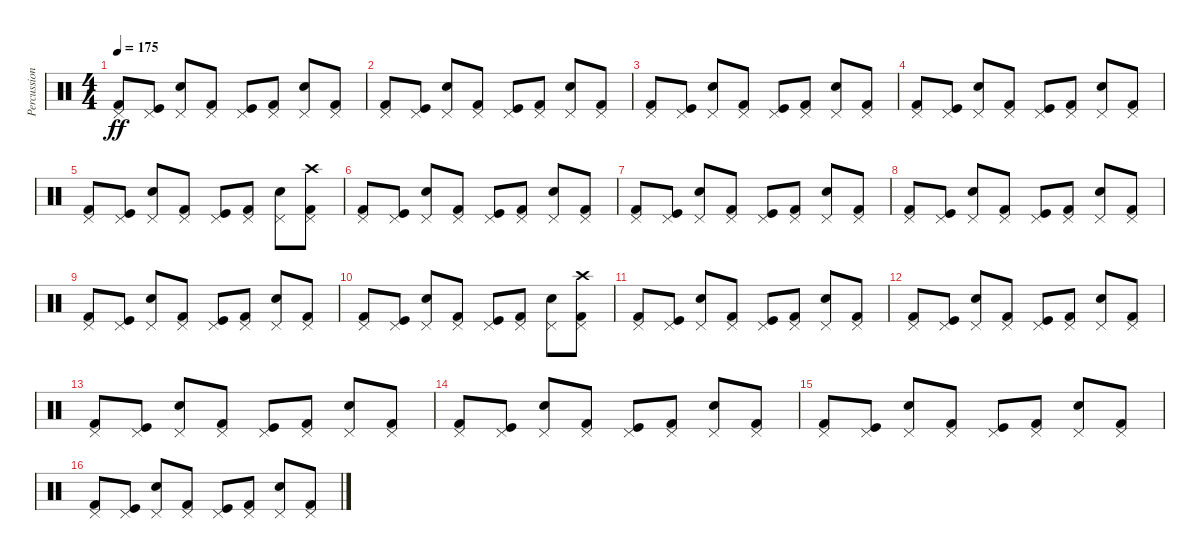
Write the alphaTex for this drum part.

\track ("Percussion (Karlo Žuliæ)" "Percussion") {instrument percussion}
\staff {score}
\articulation defaults
\ts (4 4)
\tempo 175
\clef neutral
\ks c
("Pedal Hi-Hat (hit)" "Kick (hit) 2").8{dy ff} ("Pedal Hi-Hat (hit)" "Kick (hit)").8 ("Pedal Hi-Hat (hit)" "Snare (hit) 2").8 ("Pedal Hi-Hat (hit)" "Kick (hit) 2").8 ("Pedal Hi-Hat (hit)" "Kick (hit)").8 ("Pedal Hi-Hat (hit)" "Kick (hit) 2").8 ("Pedal Hi-Hat (hit)" "Snare (hit) 2").8 ("Pedal Hi-Hat (hit)" "Kick (hit) 2").8 |
("Pedal Hi-Hat (hit)" "Kick (hit) 2").8 ("Pedal Hi-Hat (hit)" "Kick (hit)").8 ("Pedal Hi-Hat (hit)" "Snare (hit) 2").8 ("Pedal Hi-Hat (hit)" "Kick (hit) 2").8 ("Pedal Hi-Hat (hit)" "Kick (hit)").8 ("Pedal Hi-Hat (hit)" "Kick (hit) 2").8 ("Pedal Hi-Hat (hit)" "Snare (hit) 2").8 ("Pedal Hi-Hat (hit)" "Kick (hit) 2").8 |
("Pedal Hi-Hat (hit)" "Kick (hit) 2").8 ("Pedal Hi-Hat (hit)" "Kick (hit)").8 ("Pedal Hi-Hat (hit)" "Snare (hit) 2").8 ("Pedal Hi-Hat (hit)" "Kick (hit) 2").8 ("Pedal Hi-Hat (hit)" "Kick (hit)").8 ("Pedal Hi-Hat (hit)" "Kick (hit) 2").8 ("Pedal Hi-Hat (hit)" "Snare (hit) 2").8 ("Pedal Hi-Hat (hit)" "Kick (hit) 2").8 |
("Pedal Hi-Hat (hit)" "Kick (hit) 2").8 ("Pedal Hi-Hat (hit)" "Kick (hit)").8 ("Pedal Hi-Hat (hit)" "Snare (hit) 2").8 ("Pedal Hi-Hat (hit)" "Kick (hit) 2").8 ("Pedal Hi-Hat (hit)" "Kick (hit)").8 ("Pedal Hi-Hat (hit)" "Kick (hit) 2").8 ("Pedal Hi-Hat (hit)" "Snare (hit) 2").8 ("Pedal Hi-Hat (hit)" "Kick (hit) 2").8 |
("Pedal Hi-Hat (hit)" "Kick (hit) 2").8 ("Pedal Hi-Hat (hit)" "Kick (hit)").8 ("Pedal Hi-Hat (hit)" "Snare (hit) 2").8 ("Pedal Hi-Hat (hit)" "Kick (hit) 2").8 ("Pedal Hi-Hat (hit)" "Kick (hit)").8 ("Pedal Hi-Hat (hit)" "Kick (hit) 2").8 ("Pedal Hi-Hat (hit)" "Snare (hit) 2").8 ("Pedal Hi-Hat (hit)" "Kick (hit) 2" "Crash high (hit)").8 |
("Pedal Hi-Hat (hit)" "Kick (hit) 2").8 ("Pedal Hi-Hat (hit)" "Kick (hit)").8 ("Pedal Hi-Hat (hit)" "Snare (hit) 2").8 ("Pedal Hi-Hat (hit)" "Kick (hit) 2").8 ("Pedal Hi-Hat (hit)" "Kick (hit)").8 ("Pedal Hi-Hat (hit)" "Kick (hit) 2").8 ("Pedal Hi-Hat (hit)" "Snare (hit) 2").8 ("Pedal Hi-Hat (hit)" "Kick (hit) 2").8 |
("Pedal Hi-Hat (hit)" "Kick (hit) 2").8 ("Pedal Hi-Hat (hit)" "Kick (hit)").8 ("Pedal Hi-Hat (hit)" "Snare (hit) 2").8 ("Pedal Hi-Hat (hit)" "Kick (hit) 2").8 ("Pedal Hi-Hat (hit)" "Kick (hit)").8 ("Pedal Hi-Hat (hit)" "Kick (hit) 2").8 ("Pedal Hi-Hat (hit)" "Snare (hit) 2").8 ("Pedal Hi-Hat (hit)" "Kick (hit) 2").8 |
("Pedal Hi-Hat (hit)" "Kick (hit) 2").8 ("Pedal Hi-Hat (hit)" "Kick (hit)").8 ("Pedal Hi-Hat (hit)" "Snare (hit) 2").8 ("Pedal Hi-Hat (hit)" "Kick (hit) 2").8 ("Pedal Hi-Hat (hit)" "Kick (hit)").8 ("Pedal Hi-Hat (hit)" "Kick (hit) 2").8 ("Pedal Hi-Hat (hit)" "Snare (hit) 2").8 ("Pedal Hi-Hat (hit)" "Kick (hit) 2").8 |
("Pedal Hi-Hat (hit)" "Kick (hit) 2").8 ("Pedal Hi-Hat (hit)" "Kick (hit)").8 ("Pedal Hi-Hat (hit)" "Snare (hit) 2").8 ("Pedal Hi-Hat (hit)" "Kick (hit) 2").8 ("Pedal Hi-Hat (hit)" "Kick (hit)").8 ("Pedal Hi-Hat (hit)" "Kick (hit) 2").8 ("Pedal Hi-Hat (hit)" "Snare (hit) 2").8 ("Pedal Hi-Hat (hit)" "Kick (hit) 2").8 |
("Pedal Hi-Hat (hit)" "Kick (hit) 2").8 ("Pedal Hi-Hat (hit)" "Kick (hit)").8 ("Pedal Hi-Hat (hit)" "Snare (hit) 2").8 ("Pedal Hi-Hat (hit)" "Kick (hit) 2").8 ("Pedal Hi-Hat (hit)" "Kick (hit)").8 ("Pedal Hi-Hat (hit)" "Kick (hit) 2").8 ("Pedal Hi-Hat (hit)" "Snare (hit) 2").8 ("Pedal Hi-Hat (hit)" "Kick (hit) 2" "Crash high (hit)").8 |
("Pedal Hi-Hat (hit)" "Kick (hit) 2").8 ("Pedal Hi-Hat (hit)" "Kick (hit)").8 ("Pedal Hi-Hat (hit)" "Snare (hit) 2").8 ("Pedal Hi-Hat (hit)" "Kick (hit) 2").8 ("Pedal Hi-Hat (hit)" "Kick (hit)").8 ("Pedal Hi-Hat (hit)" "Kick (hit) 2").8 ("Pedal Hi-Hat (hit)" "Snare (hit) 2").8 ("Pedal Hi-Hat (hit)" "Kick (hit) 2").8 |
("Pedal Hi-Hat (hit)" "Kick (hit) 2").8 ("Pedal Hi-Hat (hit)" "Kick (hit)").8 ("Pedal Hi-Hat (hit)" "Snare (hit) 2").8 ("Pedal Hi-Hat (hit)" "Kick (hit) 2").8 ("Pedal Hi-Hat (hit)" "Kick (hit)").8 ("Pedal Hi-Hat (hit)" "Kick (hit) 2").8 ("Pedal Hi-Hat (hit)" "Snare (hit) 2").8 ("Pedal Hi-Hat (hit)" "Kick (hit) 2").8 |
("Pedal Hi-Hat (hit)" "Kick (hit) 2").8 ("Pedal Hi-Hat (hit)" "Kick (hit)").8 ("Pedal Hi-Hat (hit)" "Snare (hit) 2").8 ("Pedal Hi-Hat (hit)" "Kick (hit) 2").8 ("Pedal Hi-Hat (hit)" "Kick (hit)").8 ("Pedal Hi-Hat (hit)" "Kick (hit) 2").8 ("Pedal Hi-Hat (hit)" "Snare (hit) 2").8 ("Pedal Hi-Hat (hit)" "Kick (hit) 2").8 |
("Pedal Hi-Hat (hit)" "Kick (hit) 2").8 ("Pedal Hi-Hat (hit)" "Kick (hit)").8 ("Pedal Hi-Hat (hit)" "Snare (hit) 2").8 ("Pedal Hi-Hat (hit)" "Kick (hit) 2").8 ("Pedal Hi-Hat (hit)" "Kick (hit)").8 ("Pedal Hi-Hat (hit)" "Kick (hit) 2").8 ("Pedal Hi-Hat (hit)" "Snare (hit) 2").8 ("Pedal Hi-Hat (hit)" "Kick (hit) 2").8 |
("Pedal Hi-Hat (hit)" "Kick (hit) 2").8 ("Pedal Hi-Hat (hit)" "Kick (hit)").8 ("Pedal Hi-Hat (hit)" "Snare (hit) 2").8 ("Pedal Hi-Hat (hit)" "Kick (hit) 2").8 ("Pedal Hi-Hat (hit)" "Kick (hit)").8 ("Pedal Hi-Hat (hit)" "Kick (hit) 2").8 ("Pedal Hi-Hat (hit)" "Snare (hit) 2").8 ("Pedal Hi-Hat (hit)" "Kick (hit) 2").8 |
("Pedal Hi-Hat (hit)" "Kick (hit) 2").8 ("Pedal Hi-Hat (hit)" "Kick (hit)").8 ("Pedal Hi-Hat (hit)" "Snare (hit) 2").8 ("Pedal Hi-Hat (hit)" "Kick (hit) 2").8 ("Pedal Hi-Hat (hit)" "Kick (hit)").8 ("Pedal Hi-Hat (hit)" "Kick (hit) 2").8 ("Pedal Hi-Hat (hit)" "Snare (hit) 2").8 ("Pedal Hi-Hat (hit)" "Kick (hit) 2").8
